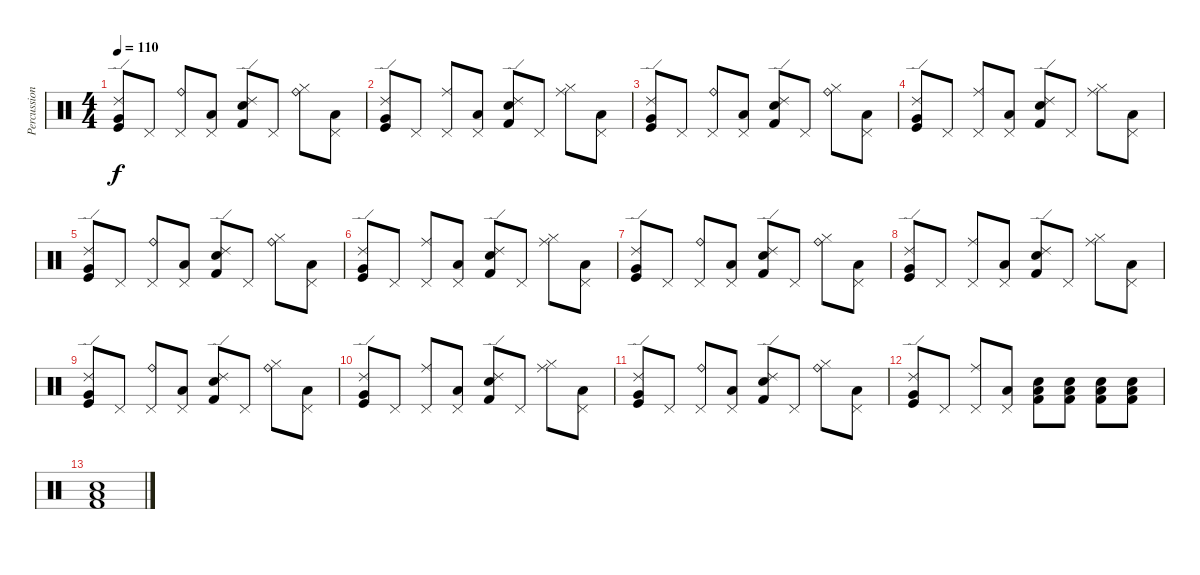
\track ("Percussions" "Percussion") {instrument percussion}
\staff {score}
\articulation defaults
\ts (4 4)
\tempo 110
\clef neutral
\ks c
("Ride (edge) 2" "Very Low Tom (hit)" "Kick (hit)").8{dy f} "Pedal Hi-Hat (hit)".8 ("Ride (bell)" "Pedal Hi-Hat (hit)").8 ("Pedal Hi-Hat (hit)" "Low Tom (hit)").8 ("Ride (edge) 2" "Kick (hit) 2" "Snare (hit) 2").8 "Pedal Hi-Hat (hit)".8 ("Hi-Hat (closed)" "Ride (bell)").8 ("Pedal Hi-Hat (hit)" "Low Tom (hit)").8 |
("Ride (edge) 2" "Very Low Tom (hit)" "Kick (hit)").8 "Pedal Hi-Hat (hit)".8 ("Ride (middle)" "Pedal Hi-Hat (hit)").8 ("Pedal Hi-Hat (hit)" "Low Tom (hit)").8 ("Ride (edge) 2" "Kick (hit) 2" "Snare (hit) 2").8 "Pedal Hi-Hat (hit)".8 ("Hi-Hat (closed)" "Ride (middle)").8 ("Pedal Hi-Hat (hit)" "Low Tom (hit)").8 |
("Ride (edge) 2" "Very Low Tom (hit)" "Kick (hit)").8 "Pedal Hi-Hat (hit)".8 ("Ride (bell)" "Pedal Hi-Hat (hit)").8 ("Pedal Hi-Hat (hit)" "Low Tom (hit)").8 ("Ride (edge) 2" "Kick (hit) 2" "Snare (hit) 2").8 "Pedal Hi-Hat (hit)".8 ("Hi-Hat (closed)" "Ride (bell)").8 ("Pedal Hi-Hat (hit)" "Low Tom (hit)").8 |
("Ride (edge) 2" "Very Low Tom (hit)" "Kick (hit)").8 "Pedal Hi-Hat (hit)".8 ("Ride (middle)" "Pedal Hi-Hat (hit)").8 ("Pedal Hi-Hat (hit)" "Low Tom (hit)").8 ("Ride (edge) 2" "Kick (hit) 2" "Snare (hit) 2").8 "Pedal Hi-Hat (hit)".8 ("Hi-Hat (closed)" "Ride (middle)").8 ("Pedal Hi-Hat (hit)" "Low Tom (hit)").8 |
("Ride (edge) 2" "Very Low Tom (hit)" "Kick (hit)").8 "Pedal Hi-Hat (hit)".8 ("Ride (bell)" "Pedal Hi-Hat (hit)").8 ("Pedal Hi-Hat (hit)" "Low Tom (hit)").8 ("Ride (edge) 2" "Kick (hit) 2" "Snare (hit) 2").8 "Pedal Hi-Hat (hit)".8 ("Hi-Hat (closed)" "Ride (bell)").8 ("Pedal Hi-Hat (hit)" "Low Tom (hit)").8 |
("Ride (edge) 2" "Very Low Tom (hit)" "Kick (hit)").8 "Pedal Hi-Hat (hit)".8 ("Ride (middle)" "Pedal Hi-Hat (hit)").8 ("Pedal Hi-Hat (hit)" "Low Tom (hit)").8 ("Ride (edge) 2" "Kick (hit) 2" "Snare (hit) 2").8 "Pedal Hi-Hat (hit)".8 ("Hi-Hat (closed)" "Ride (middle)").8 ("Pedal Hi-Hat (hit)" "Low Tom (hit)").8 |
("Ride (edge) 2" "Very Low Tom (hit)" "Kick (hit)").8 "Pedal Hi-Hat (hit)".8 ("Ride (bell)" "Pedal Hi-Hat (hit)").8 ("Pedal Hi-Hat (hit)" "Low Tom (hit)").8 ("Ride (edge) 2" "Kick (hit) 2" "Snare (hit) 2").8 "Pedal Hi-Hat (hit)".8 ("Hi-Hat (closed)" "Ride (bell)").8 ("Pedal Hi-Hat (hit)" "Low Tom (hit)").8 |
("Ride (edge) 2" "Very Low Tom (hit)" "Kick (hit)").8 "Pedal Hi-Hat (hit)".8 ("Ride (middle)" "Pedal Hi-Hat (hit)").8 ("Pedal Hi-Hat (hit)" "Low Tom (hit)").8 ("Ride (edge) 2" "Kick (hit) 2" "Snare (hit) 2").8 "Pedal Hi-Hat (hit)".8 ("Hi-Hat (closed)" "Ride (middle)").8 ("Pedal Hi-Hat (hit)" "Low Tom (hit)").8 |
("Ride (edge) 2" "Very Low Tom (hit)" "Kick (hit)").8 "Pedal Hi-Hat (hit)".8 ("Ride (bell)" "Pedal Hi-Hat (hit)").8 ("Pedal Hi-Hat (hit)" "Low Tom (hit)").8 ("Ride (edge) 2" "Kick (hit) 2" "Snare (hit) 2").8 "Pedal Hi-Hat (hit)".8 ("Hi-Hat (closed)" "Ride (bell)").8 ("Pedal Hi-Hat (hit)" "Low Tom (hit)").8 |
("Ride (edge) 2" "Very Low Tom (hit)" "Kick (hit)").8 "Pedal Hi-Hat (hit)".8 ("Ride (middle)" "Pedal Hi-Hat (hit)").8 ("Pedal Hi-Hat (hit)" "Low Tom (hit)").8 ("Ride (edge) 2" "Kick (hit) 2" "Snare (hit) 2").8 "Pedal Hi-Hat (hit)".8 ("Hi-Hat (closed)" "Ride (middle)").8 ("Pedal Hi-Hat (hit)" "Low Tom (hit)").8 |
("Ride (edge) 2" "Very Low Tom (hit)" "Kick (hit)").8 "Pedal Hi-Hat (hit)".8 ("Ride (bell)" "Pedal Hi-Hat (hit)").8 ("Pedal Hi-Hat (hit)" "Low Tom (hit)").8 ("Ride (edge) 2" "Kick (hit) 2" "Snare (hit) 2").8 "Pedal Hi-Hat (hit)".8 ("Hi-Hat (closed)" "Ride (bell)").8 ("Pedal Hi-Hat (hit)" "Low Tom (hit)").8 |
("Ride (edge) 2" "Very Low Tom (hit)" "Kick (hit)").8 "Pedal Hi-Hat (hit)".8 ("Ride (middle)" "Pedal Hi-Hat (hit)").8 ("Pedal Hi-Hat (hit)" "Low Tom (hit)").8 ("Low Tom (hit)" "Kick (hit) 2" "Snare (hit) 2").8 ("Low Tom (hit)" "Kick (hit) 2" "Snare (hit) 2").8 ("Low Tom (hit)" "Kick (hit) 2" "Snare (hit) 2").8 ("Low Tom (hit)" "Snare (hit) 2" "Kick (hit) 2").8 |
("Low Tom (hit)" "Snare (hit) 2" "Kick (hit) 2").1
